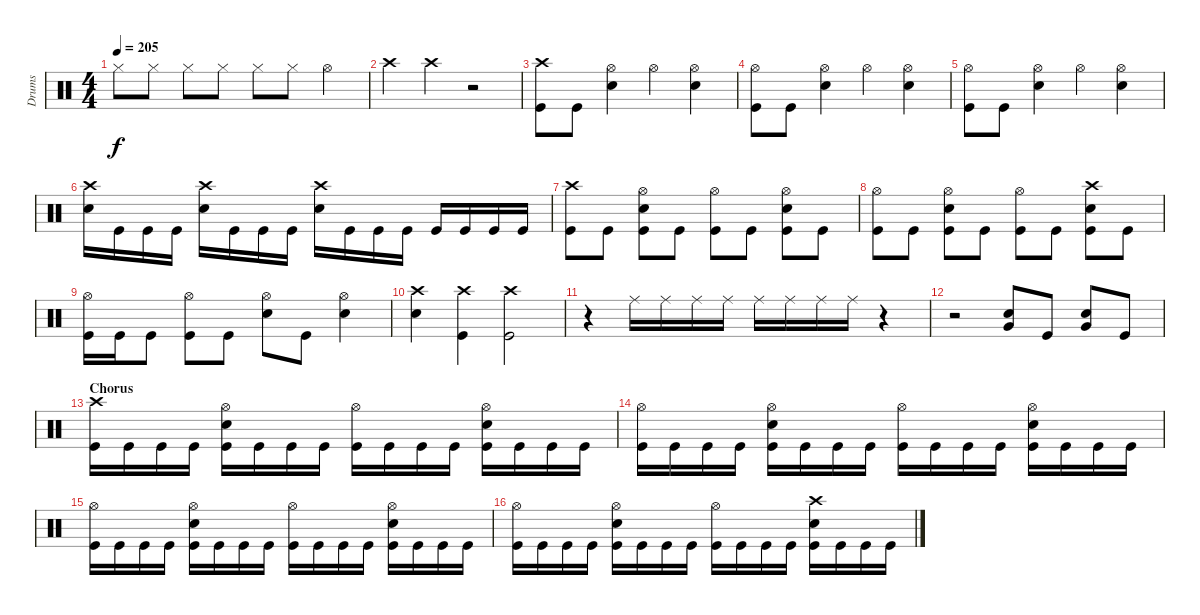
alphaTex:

\track ("Drums" "Drums") {instrument percussion}
\staff {score}
\articulation defaults
\ts (4 4)
\tempo 205
\clef neutral
\ks c "Hi-Hat (closed)".8{dy f} "Hi-Hat (closed)".8 "Hi-Hat (closed)".8 "Hi-Hat (closed)".8 "Hi-Hat (closed)".8 "Hi-Hat (closed)".8 "Hi-Hat (open)".4
|
"Crash high (hit)".4 "Crash high (hit)".4 r.2 |
("Crash high (hit)" "Kick (hit)").8 "Kick (hit)".8 ("Hi-Hat (open)" "Snare (hit) 2").4 "Hi-Hat (open)".4 ("Hi-Hat (open)" "Snare (hit) 2").4 |
("Hi-Hat (open)" "Kick (hit)").8 "Kick (hit)".8 ("Hi-Hat (open)" "Snare (hit) 2").4 "Hi-Hat (open)".4 ("Hi-Hat (open)" "Snare (hit) 2").4 |
("Hi-Hat (open)" "Kick (hit)").8 "Kick (hit)".8 ("Hi-Hat (open)" "Snare (hit) 2").4 "Hi-Hat (open)".4 ("Hi-Hat (open)" "Snare (hit) 2").4 |
("Crash high (hit)" "Snare (hit) 2").16 "Kick (hit)".16 "Kick (hit)".16 "Kick (hit)".16 ("Crash high (hit)" "Snare (hit) 2").16 "Kick (hit)".16 "Kick (hit)".16 "Kick (hit)".16 ("Crash high (hit)" "Snare (hit) 2").16 "Kick (hit)".16 "Kick (hit)".16 "Kick (hit)".16 "Kick (hit)".16 "Kick (hit)".16 "Kick (hit)".16 "Kick (hit)".16 |
("Crash high (hit)" "Kick (hit)").8 "Kick (hit)".8 ("Hi-Hat (open)" "Snare (hit) 2" "Kick (hit)").8 "Kick (hit)".8 ("Hi-Hat (open)" "Kick (hit)").8 "Kick (hit)".8 ("Hi-Hat (open)" "Snare (hit) 2" "Kick (hit)").8 "Kick (hit)".8 |
("Hi-Hat (open)" "Kick (hit)").8 "Kick (hit)".8 ("Hi-Hat (open)" "Snare (hit) 2" "Kick (hit)").8 "Kick (hit)".8 ("Hi-Hat (open)" "Kick (hit)").8 "Kick (hit)".8 ("Crash high (hit)" "Snare (hit) 2" "Kick (hit)").8 "Kick (hit)".8 |
("Hi-Hat (open)" "Kick (hit)").16 "Kick (hit)".16 "Kick (hit)".8 ("Hi-Hat (open)" "Kick (hit)").8 "Kick (hit)".8 ("Hi-Hat (open)" "Snare (hit) 2").8 "Kick (hit)".8 ("Hi-Hat (open)" "Snare (hit) 2").4 |
("Crash high (hit)" "Snare (hit) 2").4 ("Crash high (hit)" "Kick (hit)").4 ("Crash high (hit)" "Kick (hit)").2 |
r.4 "Ride (middle)".16 "Ride (middle)".16 "Ride (middle)".16 "Ride (middle)".16 "Ride (middle)".16 "Ride (middle)".16 "Ride (middle)".16 "Ride (middle)".16 r.4 |
r.2 ("Snare (hit) 2" "Very Low Tom (hit)").8 "Kick (hit)".8 ("Snare (hit) 2" "Very Low Tom (hit)").8 "Kick (hit)".8 |
\section ("" "Chorus")
("Crash high (hit)" "Kick (hit)").16 "Kick (hit)".16 "Kick (hit)".16 "Kick (hit)".16 ("Hi-Hat (open)" "Snare (hit) 2" "Kick (hit)").16 "Kick (hit)".16 "Kick (hit)".16 "Kick (hit)".16 ("Hi-Hat (open)" "Kick (hit)").16 "Kick (hit)".16 "Kick (hit)".16 "Kick (hit)".16 ("Hi-Hat (open)" "Snare (hit) 2" "Kick (hit)").16 "Kick (hit)".16 "Kick (hit)".16 "Kick (hit)".16 |
("Hi-Hat (open)" "Kick (hit)").16 "Kick (hit)".16 "Kick (hit)".16 "Kick (hit)".16 ("Hi-Hat (open)" "Snare (hit) 2" "Kick (hit)").16 "Kick (hit)".16 "Kick (hit)".16 "Kick (hit)".16 ("Hi-Hat (open)" "Kick (hit)").16 "Kick (hit)".16 "Kick (hit)".16 "Kick (hit)".16 ("Hi-Hat (open)" "Snare (hit) 2" "Kick (hit)").16 "Kick (hit)".16 "Kick (hit)".16 "Kick (hit)".16 |
("Hi-Hat (open)" "Kick (hit)").16 "Kick (hit)".16 "Kick (hit)".16 "Kick (hit)".16 ("Hi-Hat (open)" "Snare (hit) 2" "Kick (hit)").16 "Kick (hit)".16 "Kick (hit)".16 "Kick (hit)".16 ("Hi-Hat (open)" "Kick (hit)").16 "Kick (hit)".16 "Kick (hit)".16 "Kick (hit)".16 ("Hi-Hat (open)" "Snare (hit) 2" "Kick (hit)").16 "Kick (hit)".16 "Kick (hit)".16 "Kick (hit)".16 |
("Hi-Hat (open)" "Kick (hit)").16 "Kick (hit)".16 "Kick (hit)".16 "Kick (hit)".16 ("Hi-Hat (open)" "Snare (hit) 2" "Kick (hit)").16 "Kick (hit)".16 "Kick (hit)".16 "Kick (hit)".16 ("Hi-Hat (open)" "Kick (hit)").16 "Kick (hit)".16 "Kick (hit)".16 "Kick (hit)".16 ("Crash high (hit)" "Snare (hit) 2" "Kick (hit)").16 "Kick (hit)".16 "Kick (hit)".16 "Kick (hit)".16
